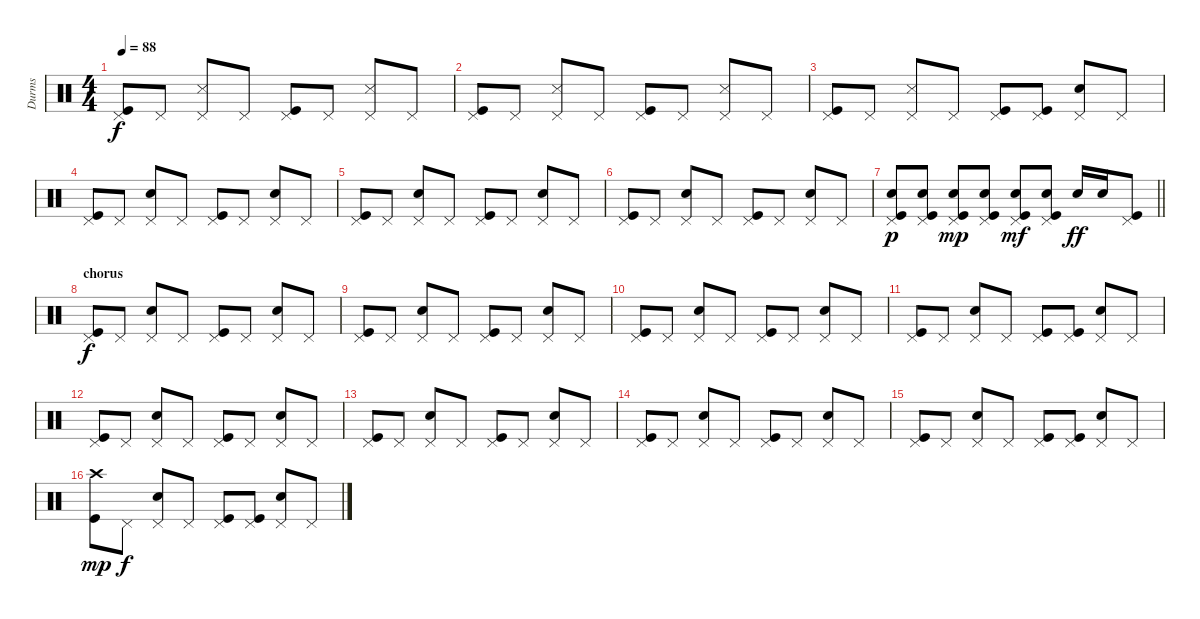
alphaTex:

\track ("Durms" "Durms") {instrument percussion}
\staff {score}
\articulation defaults
\ts (4 4)
\tempo 88
\clef neutral
\ks c
("Pedal Hi-Hat (hit)" "Kick (hit)").8{dy f} "Pedal Hi-Hat (hit)".8 ("Pedal Hi-Hat (hit)" "Snare (side stick) 3").8 "Pedal Hi-Hat (hit)".8 ("Pedal Hi-Hat (hit)" "Kick (hit)").8 "Pedal Hi-Hat (hit)".8 ("Pedal Hi-Hat (hit)" "Snare (side stick) 3").8 "Pedal Hi-Hat (hit)".8 |
("Pedal Hi-Hat (hit)" "Kick (hit)").8 "Pedal Hi-Hat (hit)".8 ("Pedal Hi-Hat (hit)" "Snare (side stick) 3").8 "Pedal Hi-Hat (hit)".8 ("Pedal Hi-Hat (hit)" "Kick (hit)").8 "Pedal Hi-Hat (hit)".8 ("Pedal Hi-Hat (hit)" "Snare (side stick) 3").8 "Pedal Hi-Hat (hit)".8 |
("Pedal Hi-Hat (hit)" "Kick (hit)").8 "Pedal Hi-Hat (hit)".8 ("Pedal Hi-Hat (hit)" "Snare (side stick) 3").8 "Pedal Hi-Hat (hit)".8 ("Pedal Hi-Hat (hit)" "Kick (hit)").8 ("Pedal Hi-Hat (hit)" "Kick (hit)").8 ("Pedal Hi-Hat (hit)" "Electric Snare (hit)").8 "Pedal Hi-Hat (hit)".8 |
("Pedal Hi-Hat (hit)" "Kick (hit)").8 "Pedal Hi-Hat (hit)".8 ("Pedal Hi-Hat (hit)" "Snare (hit) 2").8 "Pedal Hi-Hat (hit)".8 ("Pedal Hi-Hat (hit)" "Kick (hit)").8 "Pedal Hi-Hat (hit)".8 ("Pedal Hi-Hat (hit)" "Snare (hit) 2").8 "Pedal Hi-Hat (hit)".8 |
("Pedal Hi-Hat (hit)" "Kick (hit)").8 "Pedal Hi-Hat (hit)".8 ("Pedal Hi-Hat (hit)" "Snare (hit) 2").8 "Pedal Hi-Hat (hit)".8 ("Pedal Hi-Hat (hit)" "Kick (hit)").8 "Pedal Hi-Hat (hit)".8 ("Pedal Hi-Hat (hit)" "Snare (hit) 2").8 "Pedal Hi-Hat (hit)".8 |
("Pedal Hi-Hat (hit)" "Kick (hit)").8 "Pedal Hi-Hat (hit)".8 ("Pedal Hi-Hat (hit)" "Snare (hit) 2").8 "Pedal Hi-Hat (hit)".8 ("Pedal Hi-Hat (hit)" "Kick (hit)").8 "Pedal Hi-Hat (hit)".8 ("Pedal Hi-Hat (hit)" "Snare (hit) 2").8 "Pedal Hi-Hat (hit)".8 |
\barLineRight lightlight
("Pedal Hi-Hat (hit)" "Snare (hit) 2" "Kick (hit)").8{dy p} ("Pedal Hi-Hat (hit)" "Snare (hit) 2" "Kick (hit)").8 ("Pedal Hi-Hat (hit)" "Snare (hit) 2" "Kick (hit)").8{dy mp} ("Pedal Hi-Hat (hit)" "Snare (hit) 2" "Kick (hit)").8 ("Pedal Hi-Hat (hit)" "Snare (hit) 2" "Kick (hit)").8{dy mf} ("Pedal Hi-Hat (hit)" "Snare (hit) 2" "Kick (hit)").8 "Snare (hit) 2".16{dy ff} "Snare (hit) 2".16 ("Pedal Hi-Hat (hit)" "Kick (hit)").8 |
\section ("" "chorus")
("Pedal Hi-Hat (hit)" "Kick (hit)").8{dy f} "Pedal Hi-Hat (hit)".8 ("Pedal Hi-Hat (hit)" "Snare (hit) 2").8 "Pedal Hi-Hat (hit)".8 ("Pedal Hi-Hat (hit)" "Kick (hit)").8 "Pedal Hi-Hat (hit)".8 ("Pedal Hi-Hat (hit)" "Snare (hit) 2").8 "Pedal Hi-Hat (hit)".8 |
("Pedal Hi-Hat (hit)" "Kick (hit)").8 "Pedal Hi-Hat (hit)".8 ("Pedal Hi-Hat (hit)" "Snare (hit) 2").8 "Pedal Hi-Hat (hit)".8 ("Pedal Hi-Hat (hit)" "Kick (hit)").8 "Pedal Hi-Hat (hit)".8 ("Pedal Hi-Hat (hit)" "Snare (hit) 2").8 "Pedal Hi-Hat (hit)".8 |
("Pedal Hi-Hat (hit)" "Kick (hit)").8 "Pedal Hi-Hat (hit)".8 ("Pedal Hi-Hat (hit)" "Snare (hit) 2").8 "Pedal Hi-Hat (hit)".8 ("Pedal Hi-Hat (hit)" "Kick (hit)").8 "Pedal Hi-Hat (hit)".8 ("Pedal Hi-Hat (hit)" "Snare (hit) 2").8 "Pedal Hi-Hat (hit)".8 |
("Pedal Hi-Hat (hit)" "Kick (hit)").8 "Pedal Hi-Hat (hit)".8 ("Pedal Hi-Hat (hit)" "Snare (hit) 2").8 "Pedal Hi-Hat (hit)".8 ("Pedal Hi-Hat (hit)" "Kick (hit)").8 ("Pedal Hi-Hat (hit)" "Kick (hit)").8 ("Pedal Hi-Hat (hit)" "Snare (hit) 2").8 "Pedal Hi-Hat (hit)".8 |
("Pedal Hi-Hat (hit)" "Kick (hit)").8 "Pedal Hi-Hat (hit)".8 ("Pedal Hi-Hat (hit)" "Snare (hit) 2").8 "Pedal Hi-Hat (hit)".8 ("Pedal Hi-Hat (hit)" "Kick (hit)").8 "Pedal Hi-Hat (hit)".8 ("Pedal Hi-Hat (hit)" "Snare (hit) 2").8 "Pedal Hi-Hat (hit)".8 |
("Pedal Hi-Hat (hit)" "Kick (hit)").8 "Pedal Hi-Hat (hit)".8 ("Pedal Hi-Hat (hit)" "Snare (hit) 2").8 "Pedal Hi-Hat (hit)".8 ("Pedal Hi-Hat (hit)" "Kick (hit)").8 "Pedal Hi-Hat (hit)".8 ("Pedal Hi-Hat (hit)" "Snare (hit) 2").8 "Pedal Hi-Hat (hit)".8 |
("Pedal Hi-Hat (hit)" "Kick (hit)").8 "Pedal Hi-Hat (hit)".8 ("Pedal Hi-Hat (hit)" "Snare (hit) 2").8 "Pedal Hi-Hat (hit)".8 ("Pedal Hi-Hat (hit)" "Kick (hit)").8 "Pedal Hi-Hat (hit)".8 ("Pedal Hi-Hat (hit)" "Snare (hit) 2").8 "Pedal Hi-Hat (hit)".8 |
("Pedal Hi-Hat (hit)" "Kick (hit)").8 "Pedal Hi-Hat (hit)".8 ("Pedal Hi-Hat (hit)" "Snare (hit) 2").8 "Pedal Hi-Hat (hit)".8 ("Pedal Hi-Hat (hit)" "Kick (hit)").8 ("Pedal Hi-Hat (hit)" "Kick (hit)").8 ("Pedal Hi-Hat (hit)" "Snare (hit) 2").8 "Pedal Hi-Hat (hit)".8 |
("Crash high (hit)" "Kick (hit)").8{dy mp} "Pedal Hi-Hat (hit)".8{dy f} ("Pedal Hi-Hat (hit)" "Snare (hit) 2").8 "Pedal Hi-Hat (hit)".8 ("Pedal Hi-Hat (hit)" "Kick (hit)").8 ("Pedal Hi-Hat (hit)" "Kick (hit)").8 ("Pedal Hi-Hat (hit)" "Snare (hit) 2").8 "Pedal Hi-Hat (hit)".8
